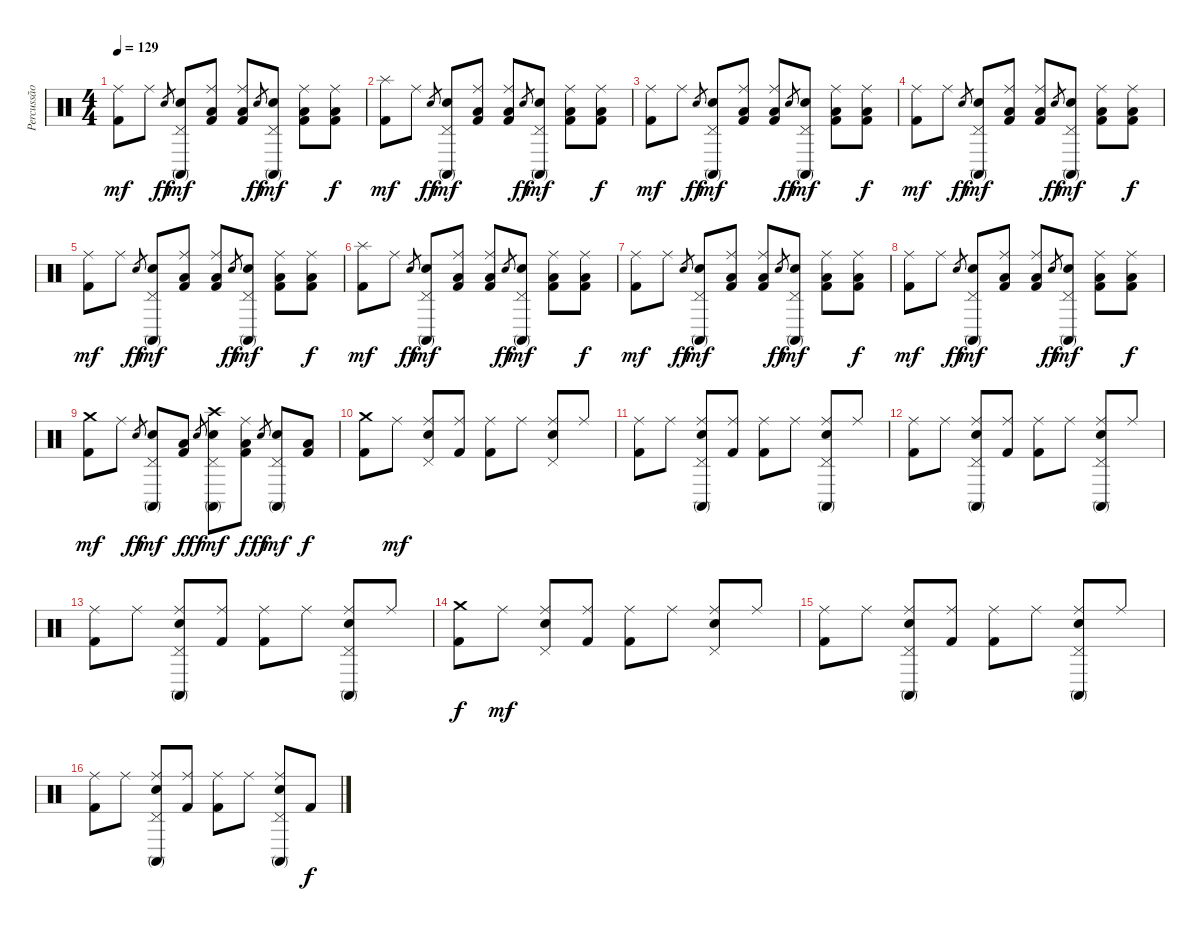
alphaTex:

\track ("Percussão" "Percussão") {instrument percussion}
\staff {score}
\articulation defaults
\ts (4 4)
\tempo 129
\clef neutral
\ks c
("Ride (middle)" "Kick (hit) 2").8{dy mf} "Ride (middle)".8 "Snare (hit) 2".8{gr dy ff} ("Snare (hit) 2" "Conga high (mute)" "Pedal Hi-Hat (hit)").8{dy mf} ("Ride (middle)" "Low Floor Tom (hit)" "Kick (hit) 2").8 ("Ride (middle)" "Low Floor Tom (hit)" "Kick (hit) 2").8 "Snare (hit) 2".8{gr dy ff} ("Snare (hit) 2" "Conga high (mute)" "Pedal Hi-Hat (hit)").8{dy mf} ("Ride (middle)" "Low Floor Tom (hit)" "Kick (hit) 2").8 ("Ride (middle)" "Low Floor Tom (hit)" "Kick (hit) 2").8{dy f} |
("Splash (hit)" "Kick (hit) 2").8{dy mf} "Ride (middle)".8 "Snare (hit) 2".8{gr dy ff} ("Snare (hit) 2" "Conga high (mute)" "Pedal Hi-Hat (hit)").8{dy mf} ("Ride (middle)" "Low Floor Tom (hit)" "Kick (hit) 2").8 ("Ride (middle)" "Low Floor Tom (hit)" "Kick (hit) 2").8 "Snare (hit) 2".8{gr dy ff} ("Snare (hit) 2" "Conga high (mute)" "Pedal Hi-Hat (hit)").8{dy mf} ("Ride (middle)" "Low Floor Tom (hit)" "Kick (hit) 2").8 ("Ride (middle)" "Low Floor Tom (hit)" "Kick (hit) 2").8{dy f} |
("Ride (middle)" "Kick (hit) 2").8{dy mf} "Ride (middle)".8 "Snare (hit) 2".8{gr dy ff} ("Snare (hit) 2" "Conga high (mute)" "Pedal Hi-Hat (hit)").8{dy mf} ("Ride (middle)" "Low Floor Tom (hit)" "Kick (hit) 2").8 ("Ride (middle)" "Low Floor Tom (hit)" "Kick (hit) 2").8 "Snare (hit) 2".8{gr dy ff} ("Snare (hit) 2" "Conga high (mute)" "Pedal Hi-Hat (hit)").8{dy mf} ("Ride (middle)" "Low Floor Tom (hit)" "Kick (hit) 2").8 ("Ride (middle)" "Low Floor Tom (hit)" "Kick (hit) 2").8{dy f} |
("Ride (middle)" "Kick (hit) 2").8{dy mf} "Ride (middle)".8 "Snare (hit) 2".8{gr dy ff} ("Snare (hit) 2" "Conga high (mute)" "Pedal Hi-Hat (hit)").8{dy mf} ("Ride (middle)" "Low Floor Tom (hit)" "Kick (hit) 2").8 ("Ride (middle)" "Low Floor Tom (hit)" "Kick (hit) 2").8 "Snare (hit) 2".8{gr dy ff} ("Snare (hit) 2" "Conga high (mute)" "Pedal Hi-Hat (hit)").8{dy mf} ("Ride (middle)" "Low Floor Tom (hit)" "Kick (hit) 2").8 ("Ride (middle)" "Low Floor Tom (hit)" "Kick (hit) 2").8{dy f} |
("Ride (middle)" "Kick (hit) 2").8{dy mf} "Ride (middle)".8 "Snare (hit) 2".8{gr dy ff} ("Snare (hit) 2" "Conga high (mute)" "Pedal Hi-Hat (hit)").8{dy mf} ("Ride (middle)" "Low Floor Tom (hit)" "Kick (hit) 2").8 ("Ride (middle)" "Low Floor Tom (hit)" "Kick (hit) 2").8 "Snare (hit) 2".8{gr dy ff} ("Snare (hit) 2" "Conga high (mute)" "Pedal Hi-Hat (hit)").8{dy mf} ("Ride (middle)" "Low Floor Tom (hit)" "Kick (hit) 2").8 ("Ride (middle)" "Low Floor Tom (hit)" "Kick (hit) 2").8{dy f} |
("Splash (hit)" "Kick (hit) 2").8{dy mf} "Ride (middle)".8 "Snare (hit) 2".8{gr dy ff} ("Snare (hit) 2" "Conga high (mute)" "Pedal Hi-Hat (hit)").8{dy mf} ("Ride (middle)" "Low Floor Tom (hit)" "Kick (hit) 2").8 ("Ride (middle)" "Low Floor Tom (hit)" "Kick (hit) 2").8 "Snare (hit) 2".8{gr dy ff} ("Snare (hit) 2" "Conga high (mute)" "Pedal Hi-Hat (hit)").8{dy mf} ("Ride (middle)" "Low Floor Tom (hit)" "Kick (hit) 2").8 ("Ride (middle)" "Low Floor Tom (hit)" "Kick (hit) 2").8{dy f} |
("Ride (middle)" "Kick (hit) 2").8{dy mf} "Ride (middle)".8 "Snare (hit) 2".8{gr dy ff} ("Snare (hit) 2" "Conga high (mute)" "Pedal Hi-Hat (hit)").8{dy mf} ("Ride (middle)" "Low Floor Tom (hit)" "Kick (hit) 2").8 ("Ride (middle)" "Low Floor Tom (hit)" "Kick (hit) 2").8 "Snare (hit) 2".8{gr dy ff} ("Snare (hit) 2" "Conga high (mute)" "Pedal Hi-Hat (hit)").8{dy mf} ("Ride (middle)" "Low Floor Tom (hit)" "Kick (hit) 2").8 ("Ride (middle)" "Low Floor Tom (hit)" "Kick (hit) 2").8{dy f} |
("Ride (middle)" "Kick (hit) 2").8{dy mf} "Ride (middle)".8 "Snare (hit) 2".8{gr dy ff} ("Snare (hit) 2" "Conga high (mute)" "Pedal Hi-Hat (hit)").8{dy mf} ("Ride (middle)" "Low Floor Tom (hit)" "Kick (hit) 2").8 ("Ride (middle)" "Low Floor Tom (hit)" "Kick (hit) 2").8 "Snare (hit) 2".8{gr dy ff} ("Snare (hit) 2" "Conga high (mute)" "Pedal Hi-Hat (hit)").8{dy mf} ("Ride (middle)" "Low Floor Tom (hit)" "Kick (hit) 2").8 ("Ride (middle)" "Low Floor Tom (hit)" "Kick (hit) 2").8{dy f} |
("Crash medium (hit)" "Kick (hit) 2").8{dy mf} "Ride (middle)".8 "Snare (hit) 2".8{gr dy ff} ("Snare (hit) 2" "Conga high (mute)" "Pedal Hi-Hat (hit)").8{dy mf} ("Low Floor Tom (hit)" "Kick (hit) 2").8{dy f} "Snare (hit) 2".8{gr dy ff} ("Crash high (hit)" "Snare (hit) 2" "Conga high (mute)" "Pedal Hi-Hat (hit)").8{dy mf} ("Ride (middle)" "Low Floor Tom (hit)" "Kick (hit) 2").8{dy f} "Snare (hit) 2".8{gr dy ff} ("Snare (hit) 2" "Conga high (mute)" "Pedal Hi-Hat (hit)").8{dy mf} ("Low Floor Tom (hit)" "Kick (hit) 2").8{dy f} |
("Crash medium (hit)" "Kick (hit) 2").8 "Ride (middle)".8{dy mf} ("Ride (middle)" "Snare (hit) 2" "Pedal Hi-Hat (hit)").8 ("Ride (middle)" "Kick (hit) 2").8 ("Ride (middle)" "Kick (hit) 2").8 "Ride (middle)".8 ("Ride (middle)" "Snare (hit) 2" "Pedal Hi-Hat (hit)").8 "Ride (middle)".8 |
("Ride (middle)" "Kick (hit) 2").8 "Ride (middle)".8 ("Ride (middle)" "Snare (hit) 2" "Conga high (mute)" "Pedal Hi-Hat (hit)").8 ("Ride (middle)" "Kick (hit) 2").8 ("Ride (middle)" "Kick (hit) 2").8 "Ride (middle)".8 ("Ride (middle)" "Snare (hit) 2" "Conga high (mute)" "Pedal Hi-Hat (hit)").8 "Ride (middle)".8 |
("Ride (middle)" "Kick (hit) 2").8 "Ride (middle)".8 ("Ride (middle)" "Snare (hit) 2" "Conga high (mute)" "Pedal Hi-Hat (hit)").8 ("Ride (middle)" "Kick (hit) 2").8 ("Ride (middle)" "Kick (hit) 2").8 "Ride (middle)".8 ("Ride (middle)" "Snare (hit) 2" "Conga high (mute)" "Pedal Hi-Hat (hit)").8 "Ride (middle)".8 |
("Ride (middle)" "Kick (hit) 2").8 "Ride (middle)".8 ("Ride (middle)" "Snare (hit) 2" "Conga high (mute)" "Pedal Hi-Hat (hit)").8 ("Ride (middle)" "Kick (hit) 2").8 ("Ride (middle)" "Kick (hit) 2").8 "Ride (middle)".8 ("Ride (middle)" "Snare (hit) 2" "Conga high (mute)" "Pedal Hi-Hat (hit)").8 "Ride (middle)".8 |
("Crash medium (hit)" "Kick (hit) 2").8{dy f} "Ride (middle)".8{dy mf} ("Ride (middle)" "Snare (hit) 2" "Pedal Hi-Hat (hit)").8 ("Ride (middle)" "Kick (hit) 2").8 ("Ride (middle)" "Kick (hit) 2").8 "Ride (middle)".8 ("Ride (middle)" "Snare (hit) 2" "Pedal Hi-Hat (hit)").8 "Ride (middle)".8 |
("Ride (middle)" "Kick (hit) 2").8 "Ride (middle)".8 ("Ride (middle)" "Snare (hit) 2" "Conga high (mute)" "Pedal Hi-Hat (hit)").8 ("Ride (middle)" "Kick (hit) 2").8 ("Ride (middle)" "Kick (hit) 2").8 "Ride (middle)".8 ("Ride (middle)" "Snare (hit) 2" "Conga high (mute)" "Pedal Hi-Hat (hit)").8 "Ride (middle)".8 |
("Ride (middle)" "Kick (hit) 2").8 "Ride (middle)".8 ("Ride (middle)" "Snare (hit) 2" "Conga high (mute)" "Pedal Hi-Hat (hit)").8 ("Ride (middle)" "Kick (hit) 2").8 ("Ride (middle)" "Kick (hit) 2").8 "Ride (middle)".8 ("Ride (middle)" "Snare (hit) 2" "Conga high (mute)" "Pedal Hi-Hat (hit)").8 "Kick (hit) 2".8{dy f}
